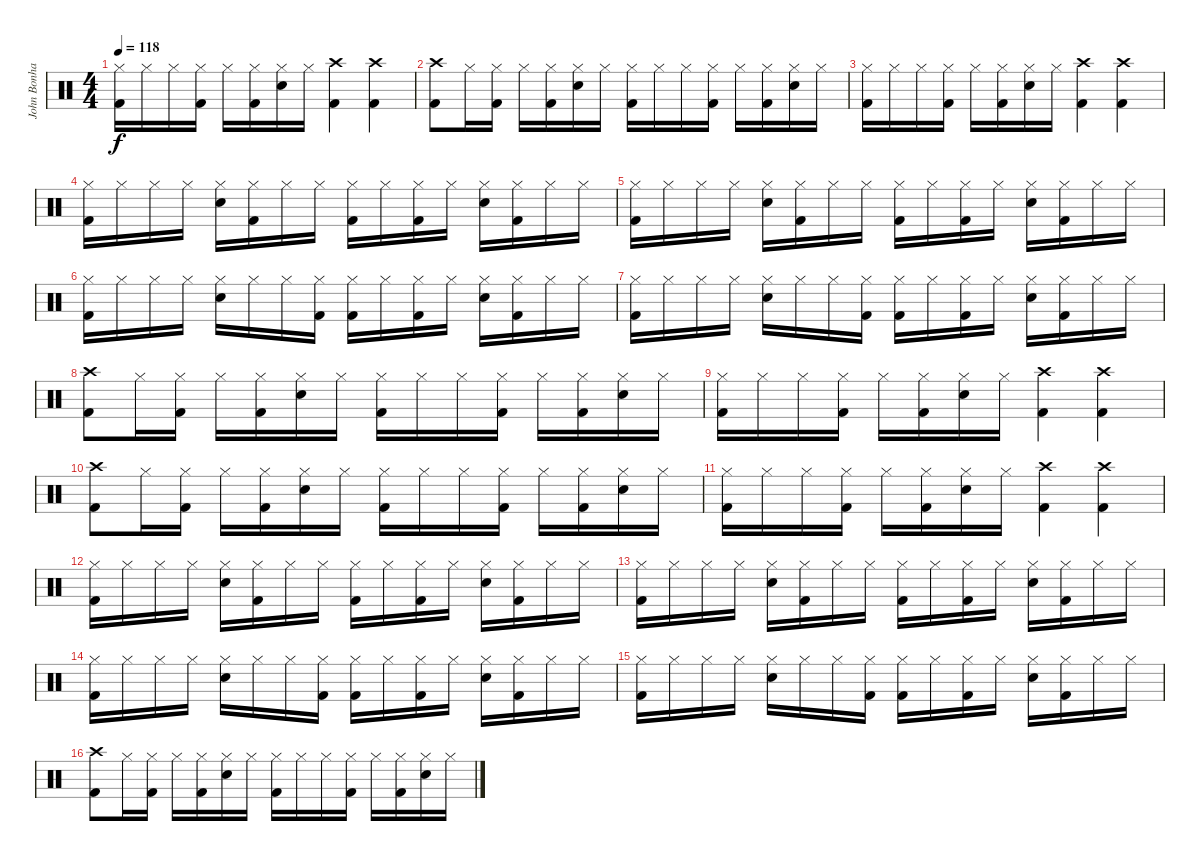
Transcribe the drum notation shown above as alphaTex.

\track ("John Bonham (Bateria)" "John Bonha") {instrument percussion}
\staff {score}
\articulation defaults
\ts (4 4)
\tempo 118
\clef neutral
\ks c
("Hi-Hat (closed)" "Kick (hit) 2").16{dy f} "Hi-Hat (closed)".16 "Hi-Hat (closed)".16 ("Hi-Hat (closed)" "Kick (hit) 2").16 "Hi-Hat (closed)".16 ("Hi-Hat (closed)" "Kick (hit) 2").16 ("Hi-Hat (closed)" "Snare (hit) 2").16 "Hi-Hat (closed)".16 ("Kick (hit) 2" "Crash high (hit)").4 ("Crash high (hit)" "Kick (hit) 2").4 |
("Crash high (hit)" "Kick (hit) 2").8 "Hi-Hat (closed)".16 ("Kick (hit) 2" "Hi-Hat (closed)").16 "Hi-Hat (closed)".16 ("Kick (hit) 2" "Hi-Hat (closed)").16 ("Snare (hit) 2" "Hi-Hat (closed)").16 "Hi-Hat (closed)".16 ("Kick (hit) 2" "Hi-Hat (closed)").16 "Hi-Hat (closed)".16 "Hi-Hat (closed)".16 ("Kick (hit) 2" "Hi-Hat (closed)").16 "Hi-Hat (closed)".16 ("Kick (hit) 2" "Hi-Hat (closed)").16 ("Snare (hit) 2" "Hi-Hat (closed)").16 "Hi-Hat (closed)".16 |
("Hi-Hat (closed)" "Kick (hit) 2").16 "Hi-Hat (closed)".16 "Hi-Hat (closed)".16 ("Hi-Hat (closed)" "Kick (hit) 2").16 "Hi-Hat (closed)".16 ("Hi-Hat (closed)" "Kick (hit) 2").16 ("Hi-Hat (closed)" "Snare (hit) 2").16 "Hi-Hat (closed)".16 ("Kick (hit) 2" "Crash high (hit)").4 ("Crash high (hit)" "Kick (hit) 2").4 |
("Hi-Hat (closed)" "Kick (hit) 2").16 "Hi-Hat (closed)".16 "Hi-Hat (closed)".16 "Hi-Hat (closed)".16 ("Hi-Hat (closed)" "Snare (hit) 2").16 ("Hi-Hat (closed)" "Kick (hit) 2").16 "Hi-Hat (closed)".16 "Hi-Hat (closed)".16 ("Hi-Hat (closed)" "Kick (hit) 2").16 "Hi-Hat (closed)".16 ("Hi-Hat (closed)" "Kick (hit) 2").16 "Hi-Hat (closed)".16 ("Hi-Hat (closed)" "Snare (hit) 2").16 ("Hi-Hat (closed)" "Kick (hit) 2").16 "Hi-Hat (closed)".16 "Hi-Hat (closed)".16 |
("Hi-Hat (closed)" "Kick (hit) 2").16 "Hi-Hat (closed)".16 "Hi-Hat (closed)".16 "Hi-Hat (closed)".16 ("Hi-Hat (closed)" "Snare (hit) 2").16 ("Hi-Hat (closed)" "Kick (hit) 2").16 "Hi-Hat (closed)".16 "Hi-Hat (closed)".16 ("Hi-Hat (closed)" "Kick (hit) 2").16 "Hi-Hat (closed)".16 ("Hi-Hat (closed)" "Kick (hit) 2").16 "Hi-Hat (closed)".16 ("Hi-Hat (closed)" "Snare (hit) 2").16 ("Hi-Hat (closed)" "Kick (hit) 2").16 "Hi-Hat (closed)".16 "Hi-Hat (closed)".16 |
("Hi-Hat (closed)" "Kick (hit) 2").16 "Hi-Hat (closed)".16 "Hi-Hat (closed)".16 "Hi-Hat (closed)".16 ("Hi-Hat (closed)" "Snare (hit) 2").16 "Hi-Hat (closed)".16 "Hi-Hat (closed)".16 ("Hi-Hat (closed)" "Kick (hit) 2").16 ("Hi-Hat (closed)" "Kick (hit) 2").16 "Hi-Hat (closed)".16 ("Hi-Hat (closed)" "Kick (hit) 2").16 "Hi-Hat (closed)".16 ("Hi-Hat (closed)" "Snare (hit) 2").16 ("Hi-Hat (closed)" "Kick (hit) 2").16 "Hi-Hat (closed)".16 "Hi-Hat (closed)".16 |
("Hi-Hat (closed)" "Kick (hit) 2").16 "Hi-Hat (closed)".16 "Hi-Hat (closed)".16 "Hi-Hat (closed)".16 ("Hi-Hat (closed)" "Snare (hit) 2").16 "Hi-Hat (closed)".16 "Hi-Hat (closed)".16 ("Hi-Hat (closed)" "Kick (hit) 2").16 ("Hi-Hat (closed)" "Kick (hit) 2").16 "Hi-Hat (closed)".16 ("Hi-Hat (closed)" "Kick (hit) 2").16 "Hi-Hat (closed)".16 ("Hi-Hat (closed)" "Snare (hit) 2").16 ("Hi-Hat (closed)" "Kick (hit) 2").16 "Hi-Hat (closed)".16 "Hi-Hat (closed)".16 |
("Crash high (hit)" "Kick (hit) 2").8 "Hi-Hat (closed)".16 ("Kick (hit) 2" "Hi-Hat (closed)").16 "Hi-Hat (closed)".16 ("Kick (hit) 2" "Hi-Hat (closed)").16 ("Snare (hit) 2" "Hi-Hat (closed)").16 "Hi-Hat (closed)".16 ("Kick (hit) 2" "Hi-Hat (closed)").16 "Hi-Hat (closed)".16 "Hi-Hat (closed)".16 ("Kick (hit) 2" "Hi-Hat (closed)").16 "Hi-Hat (closed)".16 ("Kick (hit) 2" "Hi-Hat (closed)").16 ("Snare (hit) 2" "Hi-Hat (closed)").16 "Hi-Hat (closed)".16 |
("Hi-Hat (closed)" "Kick (hit) 2").16 "Hi-Hat (closed)".16 "Hi-Hat (closed)".16 ("Hi-Hat (closed)" "Kick (hit) 2").16 "Hi-Hat (closed)".16 ("Hi-Hat (closed)" "Kick (hit) 2").16 ("Hi-Hat (closed)" "Snare (hit) 2").16 "Hi-Hat (closed)".16 ("Kick (hit) 2" "Crash high (hit)").4 ("Crash high (hit)" "Kick (hit) 2").4 |
("Crash high (hit)" "Kick (hit) 2").8 "Hi-Hat (closed)".16 ("Kick (hit) 2" "Hi-Hat (closed)").16 "Hi-Hat (closed)".16 ("Kick (hit) 2" "Hi-Hat (closed)").16 ("Snare (hit) 2" "Hi-Hat (closed)").16 "Hi-Hat (closed)".16 ("Kick (hit) 2" "Hi-Hat (closed)").16 "Hi-Hat (closed)".16 "Hi-Hat (closed)".16 ("Kick (hit) 2" "Hi-Hat (closed)").16 "Hi-Hat (closed)".16 ("Kick (hit) 2" "Hi-Hat (closed)").16 ("Snare (hit) 2" "Hi-Hat (closed)").16 "Hi-Hat (closed)".16 |
("Hi-Hat (closed)" "Kick (hit) 2").16 "Hi-Hat (closed)".16 "Hi-Hat (closed)".16 ("Hi-Hat (closed)" "Kick (hit) 2").16 "Hi-Hat (closed)".16 ("Hi-Hat (closed)" "Kick (hit) 2").16 ("Hi-Hat (closed)" "Snare (hit) 2").16 "Hi-Hat (closed)".16 ("Kick (hit) 2" "Crash high (hit)").4 ("Crash high (hit)" "Kick (hit) 2").4 |
("Hi-Hat (closed)" "Kick (hit) 2").16 "Hi-Hat (closed)".16 "Hi-Hat (closed)".16 "Hi-Hat (closed)".16 ("Hi-Hat (closed)" "Snare (hit) 2").16 ("Hi-Hat (closed)" "Kick (hit) 2").16 "Hi-Hat (closed)".16 "Hi-Hat (closed)".16 ("Hi-Hat (closed)" "Kick (hit) 2").16 "Hi-Hat (closed)".16 ("Hi-Hat (closed)" "Kick (hit) 2").16 "Hi-Hat (closed)".16 ("Hi-Hat (closed)" "Snare (hit) 2").16 ("Hi-Hat (closed)" "Kick (hit) 2").16 "Hi-Hat (closed)".16 "Hi-Hat (closed)".16 |
("Hi-Hat (closed)" "Kick (hit) 2").16 "Hi-Hat (closed)".16 "Hi-Hat (closed)".16 "Hi-Hat (closed)".16 ("Hi-Hat (closed)" "Snare (hit) 2").16 ("Hi-Hat (closed)" "Kick (hit) 2").16 "Hi-Hat (closed)".16 "Hi-Hat (closed)".16 ("Hi-Hat (closed)" "Kick (hit) 2").16 "Hi-Hat (closed)".16 ("Hi-Hat (closed)" "Kick (hit) 2").16 "Hi-Hat (closed)".16 ("Hi-Hat (closed)" "Snare (hit) 2").16 ("Hi-Hat (closed)" "Kick (hit) 2").16 "Hi-Hat (closed)".16 "Hi-Hat (closed)".16 |
("Hi-Hat (closed)" "Kick (hit) 2").16 "Hi-Hat (closed)".16 "Hi-Hat (closed)".16 "Hi-Hat (closed)".16 ("Hi-Hat (closed)" "Snare (hit) 2").16 "Hi-Hat (closed)".16 "Hi-Hat (closed)".16 ("Hi-Hat (closed)" "Kick (hit) 2").16 ("Hi-Hat (closed)" "Kick (hit) 2").16 "Hi-Hat (closed)".16 ("Hi-Hat (closed)" "Kick (hit) 2").16 "Hi-Hat (closed)".16 ("Hi-Hat (closed)" "Snare (hit) 2").16 ("Hi-Hat (closed)" "Kick (hit) 2").16 "Hi-Hat (closed)".16 "Hi-Hat (closed)".16 |
("Hi-Hat (closed)" "Kick (hit) 2").16 "Hi-Hat (closed)".16 "Hi-Hat (closed)".16 "Hi-Hat (closed)".16 ("Hi-Hat (closed)" "Snare (hit) 2").16 "Hi-Hat (closed)".16 "Hi-Hat (closed)".16 ("Hi-Hat (closed)" "Kick (hit) 2").16 ("Hi-Hat (closed)" "Kick (hit) 2").16 "Hi-Hat (closed)".16 ("Hi-Hat (closed)" "Kick (hit) 2").16 "Hi-Hat (closed)".16 ("Hi-Hat (closed)" "Snare (hit) 2").16 ("Hi-Hat (closed)" "Kick (hit) 2").16 "Hi-Hat (closed)".16 "Hi-Hat (closed)".16 |
("Crash high (hit)" "Kick (hit) 2").8 "Hi-Hat (closed)".16 ("Kick (hit) 2" "Hi-Hat (closed)").16 "Hi-Hat (closed)".16 ("Kick (hit) 2" "Hi-Hat (closed)").16 ("Snare (hit) 2" "Hi-Hat (closed)").16 "Hi-Hat (closed)".16 ("Kick (hit) 2" "Hi-Hat (closed)").16 "Hi-Hat (closed)".16 "Hi-Hat (closed)".16 ("Kick (hit) 2" "Hi-Hat (closed)").16 "Hi-Hat (closed)".16 ("Kick (hit) 2" "Hi-Hat (closed)").16 ("Snare (hit) 2" "Hi-Hat (closed)").16 "Hi-Hat (closed)".16
